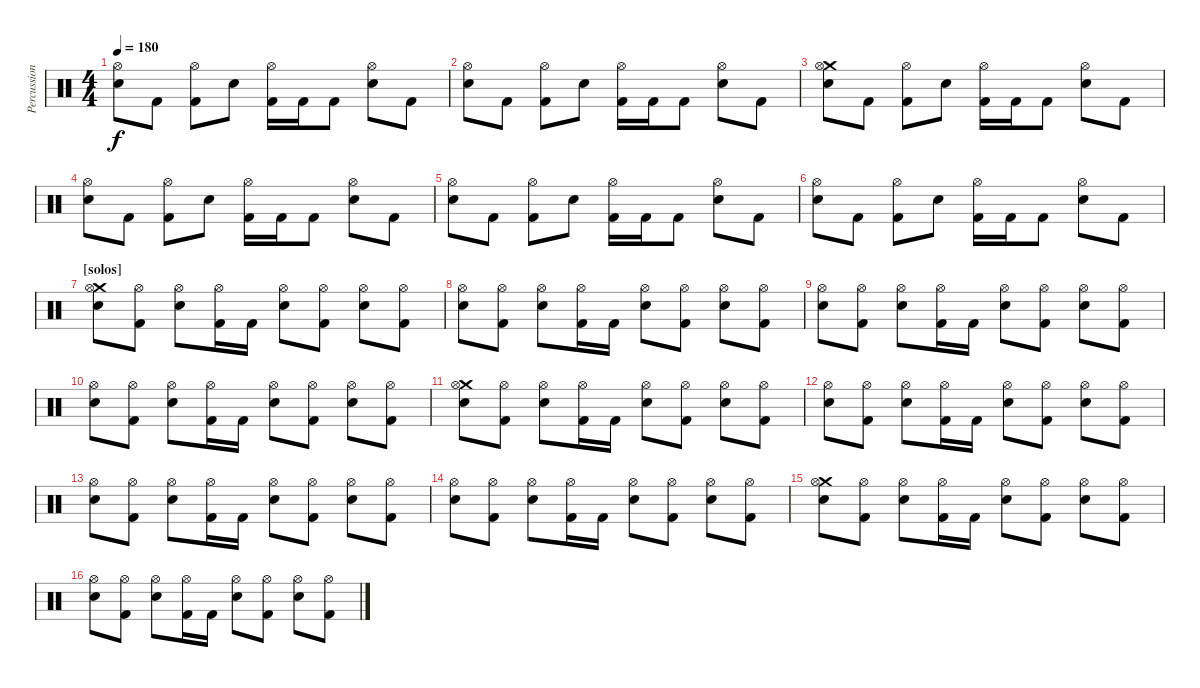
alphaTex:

\track ("Percussion" "Percussion") {instrument percussion}
\staff {score}
\articulation defaults
\ts (4 4)
\tempo 180
\clef neutral
\ks c
("Hi-Hat (open)" "Electric Snare (hit)").8{dy f} "Kick (hit) 2".8 ("Hi-Hat (open)" "Kick (hit) 2").8 "Electric Snare (hit)".8 ("Hi-Hat (open)" "Kick (hit) 2").16 "Kick (hit) 2".16 "Kick (hit) 2".8 ("Hi-Hat (open)" "Electric Snare (hit)").8 "Kick (hit) 2".8 |
("Hi-Hat (open)" "Electric Snare (hit)").8 "Kick (hit) 2".8 ("Hi-Hat (open)" "Kick (hit) 2").8 "Electric Snare (hit)".8 ("Hi-Hat (open)" "Kick (hit) 2").16 "Kick (hit) 2".16 "Kick (hit) 2".8 ("Hi-Hat (open)" "Electric Snare (hit)").8 "Kick (hit) 2".8 |
("Crash medium (hit)" "Hi-Hat (open)" "Electric Snare (hit)").8 "Kick (hit) 2".8 ("Hi-Hat (open)" "Kick (hit) 2").8 "Electric Snare (hit)".8 ("Hi-Hat (open)" "Kick (hit) 2").16 "Kick (hit) 2".16 "Kick (hit) 2".8 ("Hi-Hat (open)" "Electric Snare (hit)").8 "Kick (hit) 2".8 |
("Hi-Hat (open)" "Electric Snare (hit)").8 "Kick (hit) 2".8 ("Hi-Hat (open)" "Kick (hit) 2").8 "Electric Snare (hit)".8 ("Hi-Hat (open)" "Kick (hit) 2").16 "Kick (hit) 2".16 "Kick (hit) 2".8 ("Hi-Hat (open)" "Electric Snare (hit)").8 "Kick (hit) 2".8 |
("Hi-Hat (open)" "Electric Snare (hit)").8 "Kick (hit) 2".8 ("Hi-Hat (open)" "Kick (hit) 2").8 "Electric Snare (hit)".8 ("Hi-Hat (open)" "Kick (hit) 2").16 "Kick (hit) 2".16 "Kick (hit) 2".8 ("Hi-Hat (open)" "Electric Snare (hit)").8 "Kick (hit) 2".8 |
("Hi-Hat (open)" "Electric Snare (hit)").8 "Kick (hit) 2".8 ("Hi-Hat (open)" "Kick (hit) 2").8 "Electric Snare (hit)".8 ("Hi-Hat (open)" "Kick (hit) 2").16 "Kick (hit) 2".16 "Kick (hit) 2".8 ("Hi-Hat (open)" "Electric Snare (hit)").8 "Kick (hit) 2".8 |
\section ("" "[solos]")
("Crash medium (hit)" "Hi-Hat (open)" "Electric Snare (hit)").8 ("Hi-Hat (open)" "Kick (hit) 2").8 ("Hi-Hat (open)" "Electric Snare (hit)").8 ("Hi-Hat (open)" "Kick (hit) 2").16 "Kick (hit) 2".16 ("Hi-Hat (open)" "Electric Snare (hit)").8 ("Hi-Hat (open)" "Kick (hit) 2").8 ("Hi-Hat (open)" "Electric Snare (hit)").8 ("Hi-Hat (open)" "Kick (hit) 2").8 |
("Hi-Hat (open)" "Electric Snare (hit)").8 ("Hi-Hat (open)" "Kick (hit) 2").8 ("Hi-Hat (open)" "Electric Snare (hit)").8 ("Hi-Hat (open)" "Kick (hit) 2").16 "Kick (hit) 2".16 ("Hi-Hat (open)" "Electric Snare (hit)").8 ("Hi-Hat (open)" "Kick (hit) 2").8 ("Hi-Hat (open)" "Electric Snare (hit)").8 ("Hi-Hat (open)" "Kick (hit) 2").8 |
("Hi-Hat (open)" "Electric Snare (hit)").8 ("Hi-Hat (open)" "Kick (hit) 2").8 ("Hi-Hat (open)" "Electric Snare (hit)").8 ("Hi-Hat (open)" "Kick (hit) 2").16 "Kick (hit) 2".16 ("Hi-Hat (open)" "Electric Snare (hit)").8 ("Hi-Hat (open)" "Kick (hit) 2").8 ("Hi-Hat (open)" "Electric Snare (hit)").8 ("Hi-Hat (open)" "Kick (hit) 2").8 |
("Hi-Hat (open)" "Electric Snare (hit)").8 ("Hi-Hat (open)" "Kick (hit) 2").8 ("Hi-Hat (open)" "Electric Snare (hit)").8 ("Hi-Hat (open)" "Kick (hit) 2").16 "Kick (hit) 2".16 ("Hi-Hat (open)" "Electric Snare (hit)").8 ("Hi-Hat (open)" "Kick (hit) 2").8 ("Hi-Hat (open)" "Electric Snare (hit)").8 ("Hi-Hat (open)" "Kick (hit) 2").8 |
("Crash medium (hit)" "Hi-Hat (open)" "Electric Snare (hit)").8 ("Hi-Hat (open)" "Kick (hit) 2").8 ("Hi-Hat (open)" "Electric Snare (hit)").8 ("Hi-Hat (open)" "Kick (hit) 2").16 "Kick (hit) 2".16 ("Hi-Hat (open)" "Electric Snare (hit)").8 ("Hi-Hat (open)" "Kick (hit) 2").8 ("Hi-Hat (open)" "Electric Snare (hit)").8 ("Hi-Hat (open)" "Kick (hit) 2").8 |
("Hi-Hat (open)" "Electric Snare (hit)").8 ("Hi-Hat (open)" "Kick (hit) 2").8 ("Hi-Hat (open)" "Electric Snare (hit)").8 ("Hi-Hat (open)" "Kick (hit) 2").16 "Kick (hit) 2".16 ("Hi-Hat (open)" "Electric Snare (hit)").8 ("Hi-Hat (open)" "Kick (hit) 2").8 ("Hi-Hat (open)" "Electric Snare (hit)").8 ("Hi-Hat (open)" "Kick (hit) 2").8 |
("Hi-Hat (open)" "Electric Snare (hit)").8 ("Hi-Hat (open)" "Kick (hit) 2").8 ("Hi-Hat (open)" "Electric Snare (hit)").8 ("Hi-Hat (open)" "Kick (hit) 2").16 "Kick (hit) 2".16 ("Hi-Hat (open)" "Electric Snare (hit)").8 ("Hi-Hat (open)" "Kick (hit) 2").8 ("Hi-Hat (open)" "Electric Snare (hit)").8 ("Hi-Hat (open)" "Kick (hit) 2").8 |
("Hi-Hat (open)" "Electric Snare (hit)").8 ("Hi-Hat (open)" "Kick (hit) 2").8 ("Hi-Hat (open)" "Electric Snare (hit)").8 ("Hi-Hat (open)" "Kick (hit) 2").16 "Kick (hit) 2".16 ("Hi-Hat (open)" "Electric Snare (hit)").8 ("Hi-Hat (open)" "Kick (hit) 2").8 ("Hi-Hat (open)" "Electric Snare (hit)").8 ("Hi-Hat (open)" "Kick (hit) 2").8 |
("Crash medium (hit)" "Hi-Hat (open)" "Electric Snare (hit)").8 ("Hi-Hat (open)" "Kick (hit) 2").8 ("Hi-Hat (open)" "Electric Snare (hit)").8 ("Hi-Hat (open)" "Kick (hit) 2").16 "Kick (hit) 2".16 ("Hi-Hat (open)" "Electric Snare (hit)").8 ("Hi-Hat (open)" "Kick (hit) 2").8 ("Hi-Hat (open)" "Electric Snare (hit)").8 ("Hi-Hat (open)" "Kick (hit) 2").8 |
("Hi-Hat (open)" "Electric Snare (hit)").8 ("Hi-Hat (open)" "Kick (hit) 2").8 ("Hi-Hat (open)" "Electric Snare (hit)").8 ("Hi-Hat (open)" "Kick (hit) 2").16 "Kick (hit) 2".16 ("Hi-Hat (open)" "Electric Snare (hit)").8 ("Hi-Hat (open)" "Kick (hit) 2").8 ("Hi-Hat (open)" "Electric Snare (hit)").8 ("Hi-Hat (open)" "Kick (hit) 2").8
